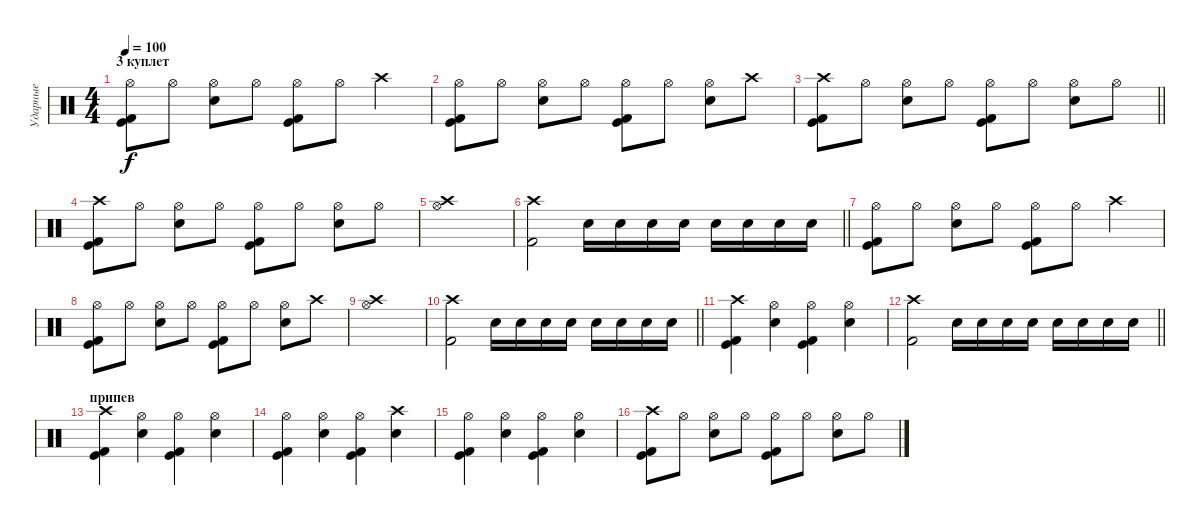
\track ("Ударные" "Ударные") {instrument percussion}
\staff {score}
\articulation defaults
\ts (4 4)
\section ("" "3 куплет")
\tempo 100
\clef neutral
\ks c
("Hi-Hat (open)" "Kick (hit) 2" "Kick (hit)").8{dy f} "Hi-Hat (open)".8 ("Hi-Hat (open)" "Electric Snare (hit)").8 "Hi-Hat (open)".8 ("Hi-Hat (open)" "Kick (hit) 2" "Kick (hit)").8 "Hi-Hat (open)".8 "Crash high (hit)".4 |
("Hi-Hat (open)" "Kick (hit) 2" "Kick (hit)").8 "Hi-Hat (open)".8 ("Hi-Hat (open)" "Electric Snare (hit)").8 "Hi-Hat (open)".8 ("Hi-Hat (open)" "Kick (hit) 2" "Kick (hit)").8 "Hi-Hat (open)".8 ("Hi-Hat (open)" "Electric Snare (hit)").8 "Crash high (hit)".8 |
\barLineRight lightlight
("Crash high (hit)" "Kick (hit) 2" "Kick (hit)").8 "Hi-Hat (open)".8 ("Hi-Hat (open)" "Electric Snare (hit)").8 "Hi-Hat (open)".8 ("Hi-Hat (open)" "Kick (hit) 2" "Kick (hit)").8 "Hi-Hat (open)".8 ("Hi-Hat (open)" "Electric Snare (hit)").8 "Hi-Hat (open)".8 |
("Crash high (hit)" "Kick (hit) 2" "Kick (hit)").8 "Hi-Hat (open)".8 ("Hi-Hat (open)" "Electric Snare (hit)").8 "Hi-Hat (open)".8 ("Hi-Hat (open)" "Kick (hit) 2" "Kick (hit)").8 "Hi-Hat (open)".8 ("Hi-Hat (open)" "Electric Snare (hit)").8 "Hi-Hat (open)".8 |
("Hi-Hat (open)" "Crash high (hit)").1 |
\barLineRight lightlight
("Crash high (hit)" "Kick (hit) 2").2 "Snare (hit) 2".16 "Snare (hit) 2".16 "Snare (hit) 2".16 "Snare (hit) 2".16 "Snare (hit) 2".16 "Snare (hit) 2".16 "Snare (hit) 2".16 "Snare (hit) 2".16 |
("Hi-Hat (open)" "Kick (hit) 2" "Kick (hit)").8 "Hi-Hat (open)".8 ("Hi-Hat (open)" "Electric Snare (hit)").8 "Hi-Hat (open)".8 ("Hi-Hat (open)" "Kick (hit) 2" "Kick (hit)").8 "Hi-Hat (open)".8 "Crash high (hit)".4 |
("Hi-Hat (open)" "Kick (hit) 2" "Kick (hit)").8 "Hi-Hat (open)".8 ("Hi-Hat (open)" "Electric Snare (hit)").8 "Hi-Hat (open)".8 ("Hi-Hat (open)" "Kick (hit) 2" "Kick (hit)").8 "Hi-Hat (open)".8 ("Hi-Hat (open)" "Electric Snare (hit)").8 "Crash high (hit)".8 |
("Hi-Hat (open)" "Crash high (hit)").1 |
\barLineRight lightlight
("Crash high (hit)" "Kick (hit) 2").2 "Snare (hit) 2".16 "Snare (hit) 2".16 "Snare (hit) 2".16 "Snare (hit) 2".16 "Snare (hit) 2".16 "Snare (hit) 2".16 "Snare (hit) 2".16 "Snare (hit) 2".16 |
("Crash high (hit)" "Kick (hit) 2" "Kick (hit)").4 ("Hi-Hat (open)" "Electric Snare (hit)").4 ("Hi-Hat (open)" "Kick (hit) 2" "Kick (hit)").4 ("Hi-Hat (open)" "Electric Snare (hit)").4 |
\barLineRight lightlight
("Crash high (hit)" "Kick (hit) 2").2 "Snare (hit) 2".16 "Snare (hit) 2".16 "Snare (hit) 2".16 "Snare (hit) 2".16 "Snare (hit) 2".16 "Snare (hit) 2".16 "Snare (hit) 2".16 "Snare (hit) 2".16 |
\section ("" "припев")
("Crash high (hit)" "Kick (hit) 2" "Kick (hit)").4 ("Hi-Hat (open)" "Electric Snare (hit)").4 ("Hi-Hat (open)" "Kick (hit) 2" "Kick (hit)").4 ("Hi-Hat (open)" "Electric Snare (hit)").4 |
("Hi-Hat (open)" "Kick (hit) 2" "Kick (hit)").4 ("Hi-Hat (open)" "Electric Snare (hit)").4 ("Hi-Hat (open)" "Kick (hit) 2" "Kick (hit)").4 ("Crash high (hit)" "Electric Snare (hit)").4 |
("Hi-Hat (open)" "Kick (hit) 2" "Kick (hit)").4 ("Hi-Hat (open)" "Electric Snare (hit)").4 ("Hi-Hat (open)" "Kick (hit) 2" "Kick (hit)").4 ("Hi-Hat (open)" "Electric Snare (hit)").4 |
("Crash high (hit)" "Kick (hit) 2" "Kick (hit)").8 "Hi-Hat (open)".8 ("Hi-Hat (open)" "Electric Snare (hit)").8 "Hi-Hat (open)".8 ("Hi-Hat (open)" "Kick (hit) 2" "Kick (hit)").8 "Hi-Hat (open)".8 ("Hi-Hat (open)" "Electric Snare (hit)").8 "Hi-Hat (open)".8
